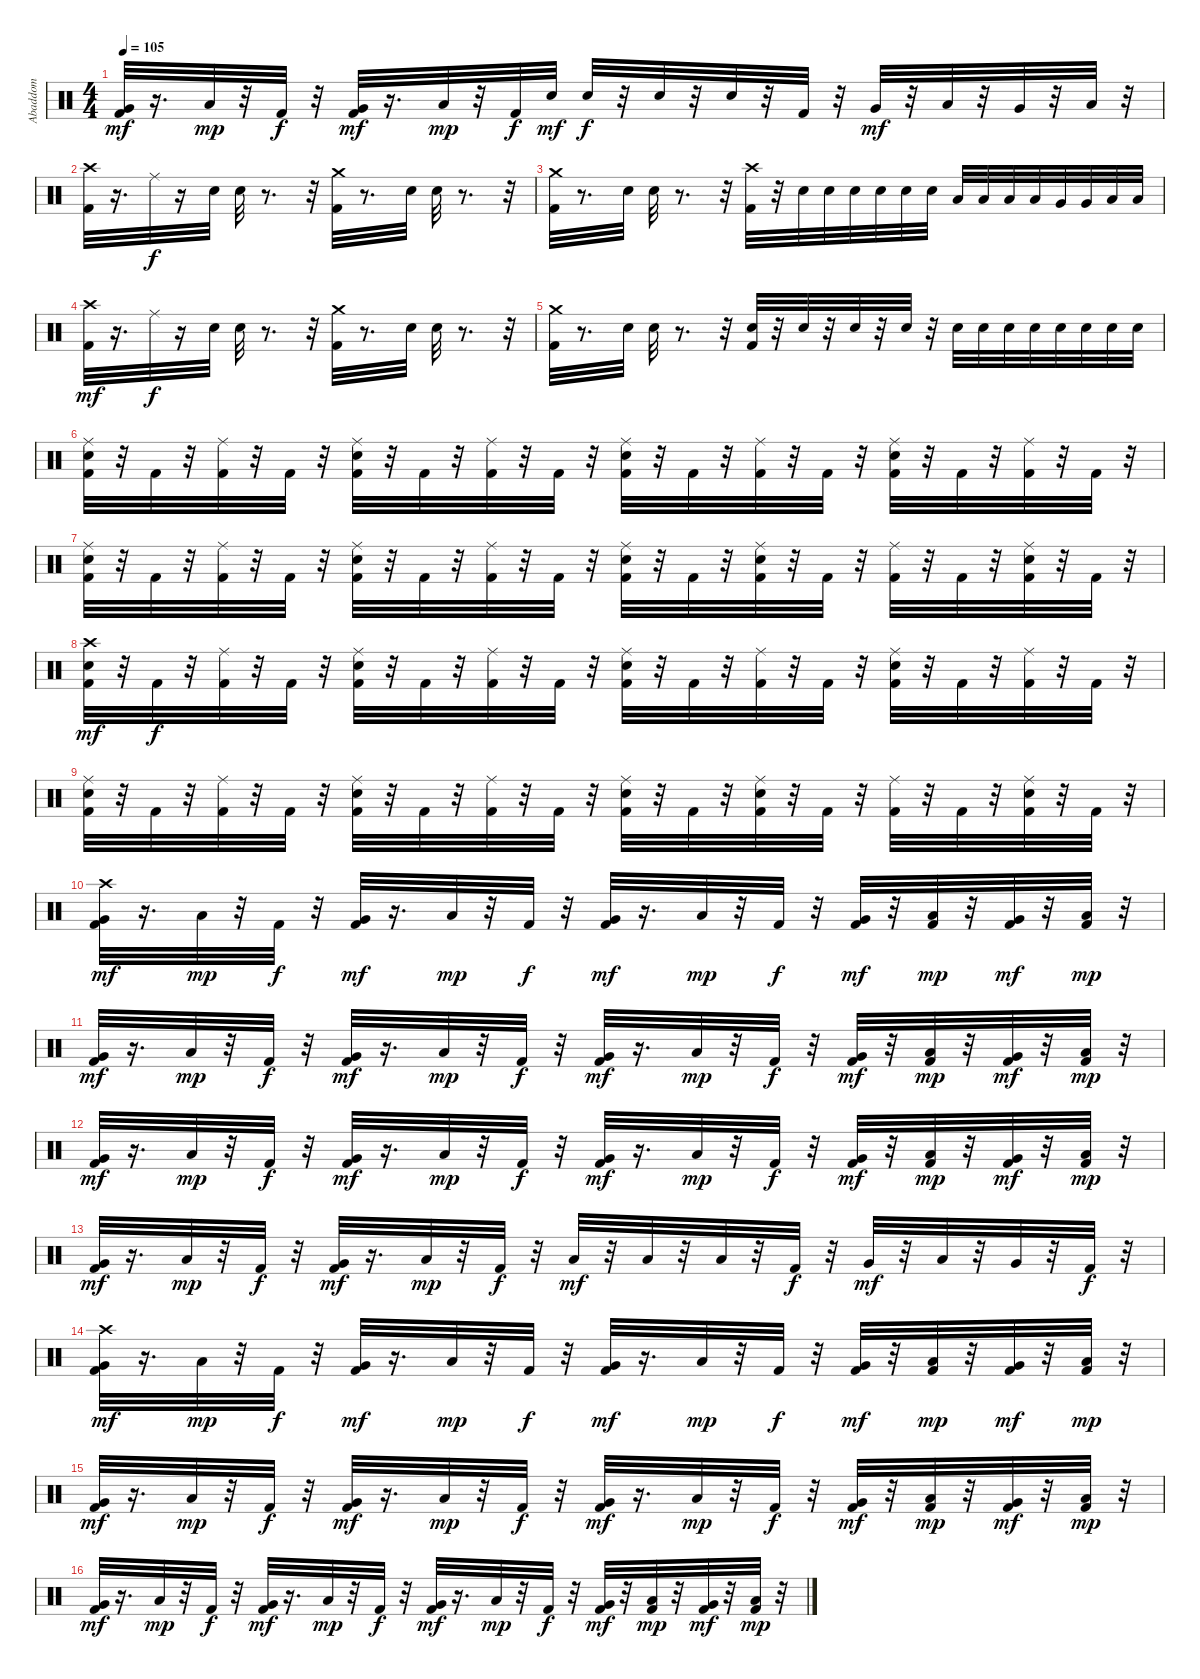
\track ("Abaddom" "Abaddom") {instrument percussion}
\staff {score}
\articulation defaults
\ts (4 4)
\tempo 105
\clef neutral
\ks c
("Very Low Tom (hit)" "Kick (hit) 2").32{dy mf} r.16{d} "Low Floor Tom (hit)".32{dy mp} r.32 "Kick (hit) 2".32{dy f} r.32 ("Kick (hit) 2" "Very Low Tom (hit)").32{dy mf} r.16{d} "Low Floor Tom (hit)".32{dy mp} r.32 "Kick (hit) 2".32{dy f} "Snare (hit) 2".32{dy mf} "Snare (hit) 2".32{dy f} r.32 "Snare (hit) 2".32 r.32 "Snare (hit) 2".32 r.32 "Kick (hit) 2".32 r.32 "Very Low Tom (hit)".32{dy mf} r.32 "Low Tom (hit)".32 r.32 "Very Low Tom (hit)".32 r.32 "Low Floor Tom (hit)".32 r.32 |
("Crash high (hit)" "Kick (hit) 2").32 r.16{d} "Ride (middle)".32{dy f} r.16 "Snare (hit) 2".32 "Snare (hit) 2".32 r.8{d} r.32 ("Crash medium (hit)" "Kick (hit) 2").32 r.8{d} "Snare (hit) 2".32 "Snare (hit) 2".32 r.8{d} r.32 |
("Crash medium (hit)" "Kick (hit) 2").32 r.8{d} "Snare (hit) 2".32 "Snare (hit) 2".32 r.8{d} r.32 ("Crash high (hit)" "Kick (hit) 2").32 r.32 "Snare (hit) 2".32 "Snare (hit) 2".32 "Snare (hit) 2".32 "Snare (hit) 2".32 "Snare (hit) 2".32 "Snare (hit) 2".32 "Low Tom (hit)".32 "Low Tom (hit)".32 "Low Tom (hit)".32 "Low Tom (hit)".32 "Very Low Tom (hit)".32 "Very Low Tom (hit)".32 "Low Floor Tom (hit)".32 "Low Floor Tom (hit)".32 |
("Kick (hit) 2" "Crash high (hit)").32{dy mf} r.16{d} "Ride (middle)".32{dy f} r.16 "Snare (hit) 2".32 "Snare (hit) 2".32 r.8{d} r.32 ("Crash medium (hit)" "Kick (hit) 2").32 r.8{d} "Snare (hit) 2".32 "Snare (hit) 2".32 r.8{d} r.32 |
("Kick (hit) 2" "Crash medium (hit)").32 r.8{d} "Snare (hit) 2".32 "Snare (hit) 2".32 r.8{d} r.32 ("Snare (hit) 2" "Kick (hit) 2").32 r.32 "Snare (hit) 2".32 r.32 "Snare (hit) 2".32 r.32 "Snare (hit) 2".32 r.32 "Snare (hit) 2".32 "Snare (hit) 2".32 "Snare (hit) 2".32 "Snare (hit) 2".32 "Snare (hit) 2".32 "Snare (hit) 2".32 "Snare (hit) 2".32 "Snare (hit) 2".32 |
("Snare (hit) 2" "Kick (hit) 2" "Ride (middle)").32 r.32 "Kick (hit) 2".32 r.32 ("Ride (middle)" "Kick (hit) 2").32 r.32 "Kick (hit) 2".32 r.32 ("Snare (hit) 2" "Ride (middle)" "Kick (hit) 2").32 r.32 "Kick (hit) 2".32 r.32 ("Ride (middle)" "Kick (hit) 2").32 r.32 "Kick (hit) 2".32 r.32 ("Snare (hit) 2" "Kick (hit) 2" "Ride (middle)").32 r.32 "Kick (hit) 2".32 r.32 ("Ride (middle)" "Kick (hit) 2").32 r.32 "Kick (hit) 2".32 r.32 ("Ride (middle)" "Snare (hit) 2" "Kick (hit) 2").32 r.32 "Kick (hit) 2".32 r.32 ("Kick (hit) 2" "Ride (middle)").32 r.32 "Kick (hit) 2".32 r.32 |
("Snare (hit) 2" "Ride (middle)" "Kick (hit) 2").32 r.32 "Kick (hit) 2".32 r.32 ("Kick (hit) 2" "Ride (middle)").32 r.32 "Kick (hit) 2".32 r.32 ("Snare (hit) 2" "Kick (hit) 2" "Ride (middle)").32 r.32 "Kick (hit) 2".32 r.32 ("Kick (hit) 2" "Ride (middle)").32 r.32 "Kick (hit) 2".32 r.32 ("Ride (middle)" "Snare (hit) 2" "Kick (hit) 2").32 r.32 "Kick (hit) 2".32 r.32 ("Ride (middle)" "Snare (hit) 2" "Kick (hit) 2").32 r.32 "Kick (hit) 2".32 r.32 ("Kick (hit) 2" "Ride (middle)").32 r.32 "Kick (hit) 2".32 r.32 ("Kick (hit) 2" "Snare (hit) 2" "Ride (middle)").32 r.32 "Kick (hit) 2".32 r.32 |
("Crash high (hit)" "Snare (hit) 2" "Kick (hit) 2").32{dy mf} r.32 "Kick (hit) 2".32{dy f} r.32 ("Kick (hit) 2" "Ride (middle)").32 r.32 "Kick (hit) 2".32 r.32 ("Ride (middle)" "Snare (hit) 2" "Kick (hit) 2").32 r.32 "Kick (hit) 2".32 r.32 ("Kick (hit) 2" "Ride (middle)").32 r.32 "Kick (hit) 2".32 r.32 ("Snare (hit) 2" "Kick (hit) 2" "Ride (middle)").32 r.32 "Kick (hit) 2".32 r.32 ("Kick (hit) 2" "Ride (middle)").32 r.32 "Kick (hit) 2".32 r.32 ("Ride (middle)" "Snare (hit) 2" "Kick (hit) 2").32 r.32 "Kick (hit) 2".32 r.32 ("Ride (middle)" "Kick (hit) 2").32 r.32 "Kick (hit) 2".32 r.32 |
("Kick (hit) 2" "Ride (middle)" "Snare (hit) 2").32 r.32 "Kick (hit) 2".32 r.32 ("Kick (hit) 2" "Ride (middle)").32 r.32 "Kick (hit) 2".32 r.32 ("Snare (hit) 2" "Kick (hit) 2" "Ride (middle)").32 r.32 "Kick (hit) 2".32 r.32 ("Kick (hit) 2" "Ride (middle)").32 r.32 "Kick (hit) 2".32 r.32 ("Ride (middle)" "Snare (hit) 2" "Kick (hit) 2").32 r.32 "Kick (hit) 2".32 r.32 ("Ride (middle)" "Snare (hit) 2" "Kick (hit) 2").32 r.32 "Kick (hit) 2".32 r.32 ("Kick (hit) 2" "Ride (middle)").32 r.32 "Kick (hit) 2".32 r.32 ("Snare (hit) 2" "Kick (hit) 2" "Ride (middle)").32 r.32 "Kick (hit) 2".32 r.32 |
("Crash high (hit)" "Very Low Tom (hit)" "Kick (hit) 2").32{dy mf} r.16{d} "Low Floor Tom (hit)".32{dy mp} r.32 "Kick (hit) 2".32{dy f} r.32 ("Kick (hit) 2" "Very Low Tom (hit)").32{dy mf} r.16{d} "Low Floor Tom (hit)".32{dy mp} r.32 "Kick (hit) 2".32{dy f} r.32 ("Kick (hit) 2" "Very Low Tom (hit)").32{dy mf} r.16{d} "Low Floor Tom (hit)".32{dy mp} r.32 "Kick (hit) 2".32{dy f} r.32 ("Kick (hit) 2" "Very Low Tom (hit)").32{dy mf} r.32 ("Low Floor Tom (hit)" "Kick (hit) 2").32{dy mp} r.32 ("Kick (hit) 2" "Very Low Tom (hit)").32{dy mf} r.32 ("Kick (hit) 2" "Low Floor Tom (hit)").32{dy mp} r.32 |
("Very Low Tom (hit)" "Kick (hit) 2").32{dy mf} r.16{d} "Low Floor Tom (hit)".32{dy mp} r.32 "Kick (hit) 2".32{dy f} r.32 ("Kick (hit) 2" "Very Low Tom (hit)").32{dy mf} r.16{d} "Low Floor Tom (hit)".32{dy mp} r.32 "Kick (hit) 2".32{dy f} r.32 ("Kick (hit) 2" "Very Low Tom (hit)").32{dy mf} r.16{d} "Low Floor Tom (hit)".32{dy mp} r.32 "Kick (hit) 2".32{dy f} r.32 ("Kick (hit) 2" "Very Low Tom (hit)").32{dy mf} r.32 ("Low Floor Tom (hit)" "Kick (hit) 2").32{dy mp} r.32 ("Kick (hit) 2" "Very Low Tom (hit)").32{dy mf} r.32 ("Kick (hit) 2" "Low Floor Tom (hit)").32{dy mp} r.32 |
("Very Low Tom (hit)" "Kick (hit) 2").32{dy mf} r.16{d} "Low Floor Tom (hit)".32{dy mp} r.32 "Kick (hit) 2".32{dy f} r.32 ("Kick (hit) 2" "Very Low Tom (hit)").32{dy mf} r.16{d} "Low Floor Tom (hit)".32{dy mp} r.32 "Kick (hit) 2".32{dy f} r.32 ("Kick (hit) 2" "Very Low Tom (hit)").32{dy mf} r.16{d} "Low Floor Tom (hit)".32{dy mp} r.32 "Kick (hit) 2".32{dy f} r.32 ("Kick (hit) 2" "Very Low Tom (hit)").32{dy mf} r.32 ("Low Floor Tom (hit)" "Kick (hit) 2").32{dy mp} r.32 ("Kick (hit) 2" "Very Low Tom (hit)").32{dy mf} r.32 ("Kick (hit) 2" "Low Floor Tom (hit)").32{dy mp} r.32 |
("Very Low Tom (hit)" "Kick (hit) 2").32{dy mf} r.16{d} "Low Floor Tom (hit)".32{dy mp} r.32 "Kick (hit) 2".32{dy f} r.32 ("Kick (hit) 2" "Very Low Tom (hit)").32{dy mf} r.16{d} "Low Floor Tom (hit)".32{dy mp} r.32 "Kick (hit) 2".32{dy f} r.32 "Low Tom (hit)".32{dy mf} r.32 "Low Tom (hit)".32 r.32 "Low Tom (hit)".32 r.32 "Kick (hit) 2".32{dy f} r.32 "Very Low Tom (hit)".32{dy mf} r.32 "Low Tom (hit)".32 r.32 "Very Low Tom (hit)".32 r.32 "Kick (hit) 2".32{dy f} r.32 |
("Crash high (hit)" "Very Low Tom (hit)" "Kick (hit) 2").32{dy mf} r.16{d} "Low Floor Tom (hit)".32{dy mp} r.32 "Kick (hit) 2".32{dy f} r.32 ("Kick (hit) 2" "Very Low Tom (hit)").32{dy mf} r.16{d} "Low Floor Tom (hit)".32{dy mp} r.32 "Kick (hit) 2".32{dy f} r.32 ("Kick (hit) 2" "Very Low Tom (hit)").32{dy mf} r.16{d} "Low Floor Tom (hit)".32{dy mp} r.32 "Kick (hit) 2".32{dy f} r.32 ("Kick (hit) 2" "Very Low Tom (hit)").32{dy mf} r.32 ("Low Floor Tom (hit)" "Kick (hit) 2").32{dy mp} r.32 ("Kick (hit) 2" "Very Low Tom (hit)").32{dy mf} r.32 ("Kick (hit) 2" "Low Floor Tom (hit)").32{dy mp} r.32 |
("Very Low Tom (hit)" "Kick (hit) 2").32{dy mf} r.16{d} "Low Floor Tom (hit)".32{dy mp} r.32 "Kick (hit) 2".32{dy f} r.32 ("Kick (hit) 2" "Very Low Tom (hit)").32{dy mf} r.16{d} "Low Floor Tom (hit)".32{dy mp} r.32 "Kick (hit) 2".32{dy f} r.32 ("Kick (hit) 2" "Very Low Tom (hit)").32{dy mf} r.16{d} "Low Floor Tom (hit)".32{dy mp} r.32 "Kick (hit) 2".32{dy f} r.32 ("Kick (hit) 2" "Very Low Tom (hit)").32{dy mf} r.32 ("Low Floor Tom (hit)" "Kick (hit) 2").32{dy mp} r.32 ("Kick (hit) 2" "Very Low Tom (hit)").32{dy mf} r.32 ("Kick (hit) 2" "Low Floor Tom (hit)").32{dy mp} r.32 |
("Very Low Tom (hit)" "Kick (hit) 2").32{dy mf} r.16{d} "Low Floor Tom (hit)".32{dy mp} r.32 "Kick (hit) 2".32{dy f} r.32 ("Kick (hit) 2" "Very Low Tom (hit)").32{dy mf} r.16{d} "Low Floor Tom (hit)".32{dy mp} r.32 "Kick (hit) 2".32{dy f} r.32 ("Kick (hit) 2" "Very Low Tom (hit)").32{dy mf} r.16{d} "Low Floor Tom (hit)".32{dy mp} r.32 "Kick (hit) 2".32{dy f} r.32 ("Kick (hit) 2" "Very Low Tom (hit)").32{dy mf} r.32 ("Low Floor Tom (hit)" "Kick (hit) 2").32{dy mp} r.32 ("Kick (hit) 2" "Very Low Tom (hit)").32{dy mf} r.32 ("Kick (hit) 2" "Low Floor Tom (hit)").32{dy mp} r.32
